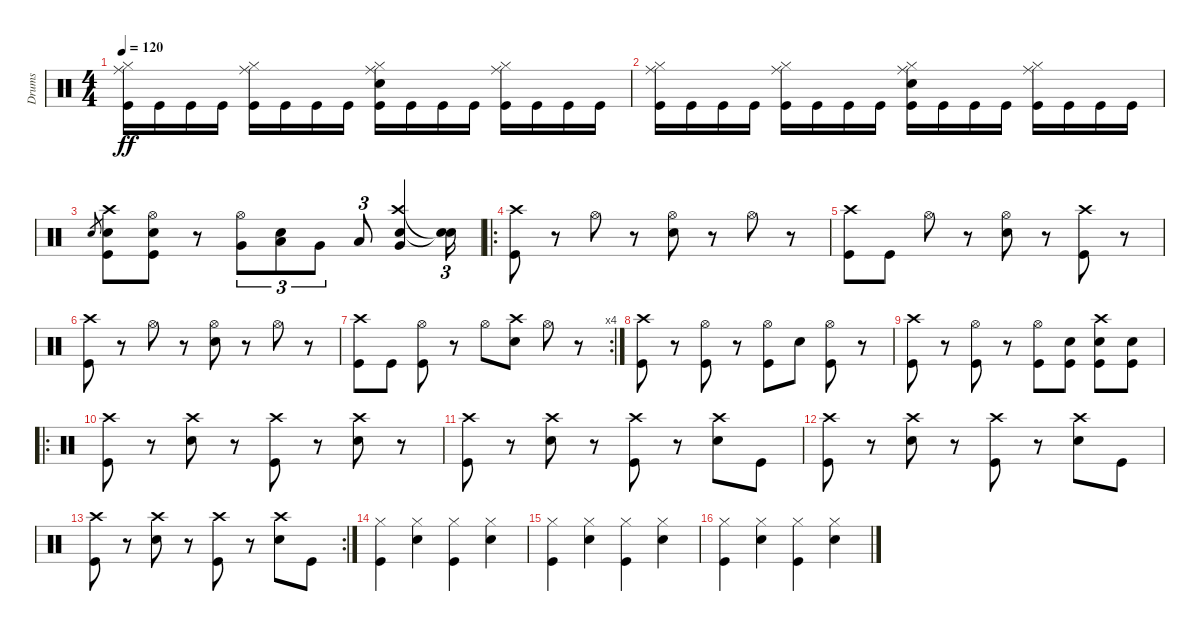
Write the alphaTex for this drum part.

\track ("Drums" "Drums") {instrument percussion}
\staff {score}
\articulation defaults
\ts (4 4)
\tempo 120
\clef neutral
\ks c
("Ride (middle)" "Hi-Hat (closed)" "Kick (hit)").16{dy ff} "Kick (hit)".16 "Kick (hit)".16 "Kick (hit)".16 ("Ride (middle)" "Hi-Hat (closed)" "Kick (hit)").16 "Kick (hit)".16 "Kick (hit)".16 "Kick (hit)".16 ("Ride (middle)" "Hi-Hat (closed)" "Snare (hit) 2" "Kick (hit)").16 "Kick (hit)".16 "Kick (hit)".16 "Kick (hit)".16 ("Ride (middle)" "Hi-Hat (closed)" "Kick (hit)").16 "Kick (hit)".16 "Kick (hit)".16 "Kick (hit)".16 |
("Ride (middle)" "Hi-Hat (closed)" "Kick (hit)").16 "Kick (hit)".16 "Kick (hit)".16 "Kick (hit)".16 ("Ride (middle)" "Hi-Hat (closed)" "Kick (hit)").16 "Kick (hit)".16 "Kick (hit)".16 "Kick (hit)".16 ("Ride (middle)" "Hi-Hat (closed)" "Snare (hit) 2" "Kick (hit)").16 "Kick (hit)".16 "Kick (hit)".16 "Kick (hit)".16 ("Ride (middle)" "Hi-Hat (closed)" "Kick (hit)").16 "Kick (hit)".16 "Kick (hit)".16 "Kick (hit)".16 |
"Snare (hit) 2".8{gr} ("Crash high (hit)" "Snare (hit) 2" "Kick (hit)").8 ("Hi-Hat (open)" "Snare (hit) 2" "Kick (hit)").8 r.8 ("Hi-Hat (open)" "Very Low Tom (hit)").8{tu (3 2)} ("Snare (hit) 2" "Low Tom (hit)").8{tu (3 2)} "Very Low Tom (hit)".8{tu (3 2)} "Low Floor Tom (hit)".8{tu (3 2)} ("Crash high (hit)" "Snare (hit) 2" "Very Low Tom (hit)").4 ("Snare (hit)"{t} "Snare (hit)"{t}).16{tu (3 2)} |
\ro
("Crash high (hit)" "Kick (hit)").8 r.8 "Hi-Hat (open)".8 r.8 ("Hi-Hat (open)" "Snare (hit) 2").8 r.8 "Hi-Hat (open)".8 r.8 |
("Crash high (hit)" "Kick (hit)").8 "Kick (hit)".8 "Hi-Hat (open)".8 r.8 ("Hi-Hat (open)" "Snare (hit) 2").8 r.8 ("Crash high (hit)" "Kick (hit)").8 r.8 |
("Crash high (hit)" "Kick (hit)").8 r.8 "Hi-Hat (open)".8 r.8 ("Hi-Hat (open)" "Snare (hit) 2").8 r.8 "Hi-Hat (open)".8 r.8 |
\rc 4
("Crash high (hit)" "Kick (hit)").8 "Kick (hit)".8 ("Hi-Hat (open)" "Kick (hit)").8 r.8 "Hi-Hat (open)".8 ("Crash high (hit)" "Snare (hit) 2").8 "Hi-Hat (open)".8 r.8 |
("Crash high (hit)" "Kick (hit)").8 r.8 ("Hi-Hat (open)" "Kick (hit)").8 r.8 ("Hi-Hat (open)" "Kick (hit)").8 "Snare (hit) 2".8 ("Hi-Hat (open)" "Kick (hit)").8 r.8 |
("Crash high (hit)" "Kick (hit)").8 r.8 ("Hi-Hat (open)" "Kick (hit)").8 r.8 ("Hi-Hat (open)" "Kick (hit)").8 ("Snare (hit) 2" "Kick (hit)").8 ("Crash high (hit)" "Snare (hit) 2" "Kick (hit)").8 ("Snare (hit) 2" "Kick (hit)").8 |
\ro
("Crash high (hit)" "Kick (hit)").8 r.8 ("Crash high (hit)" "Snare (hit) 2").8 r.8 ("Crash high (hit)" "Kick (hit)").8 r.8 ("Crash high (hit)" "Snare (hit) 2").8 r.8 |
("Crash high (hit)" "Kick (hit)").8 r.8 ("Crash high (hit)" "Snare (hit) 2").8 r.8 ("Crash high (hit)" "Kick (hit)").8 r.8 ("Crash high (hit)" "Snare (hit) 2").8 "Kick (hit)".8 |
("Crash high (hit)" "Kick (hit)").8 r.8 ("Crash high (hit)" "Snare (hit) 2").8 r.8 ("Crash high (hit)" "Kick (hit)").8 r.8 ("Crash high (hit)" "Snare (hit) 2").8 "Kick (hit)".8 |
\rc 2
("Crash high (hit)" "Kick (hit)").8 r.8 ("Crash high (hit)" "Snare (hit) 2").8 r.8 ("Crash high (hit)" "Kick (hit)").8 r.8 ("Crash high (hit)" "Snare (hit) 2").8 "Kick (hit)".8 |
("Hi-Hat (closed)" "Kick (hit)").4 ("Hi-Hat (closed)" "Snare (hit) 2").4 ("Hi-Hat (closed)" "Kick (hit)").4 ("Hi-Hat (closed)" "Snare (hit) 2").4 |
("Hi-Hat (closed)" "Kick (hit)").4 ("Hi-Hat (closed)" "Snare (hit) 2").4 ("Hi-Hat (closed)" "Kick (hit)").4 ("Hi-Hat (closed)" "Snare (hit) 2").4 |
("Hi-Hat (closed)" "Kick (hit)").4 ("Hi-Hat (closed)" "Snare (hit) 2").4 ("Hi-Hat (closed)" "Kick (hit)").4 ("Hi-Hat (closed)" "Snare (hit) 2").4
